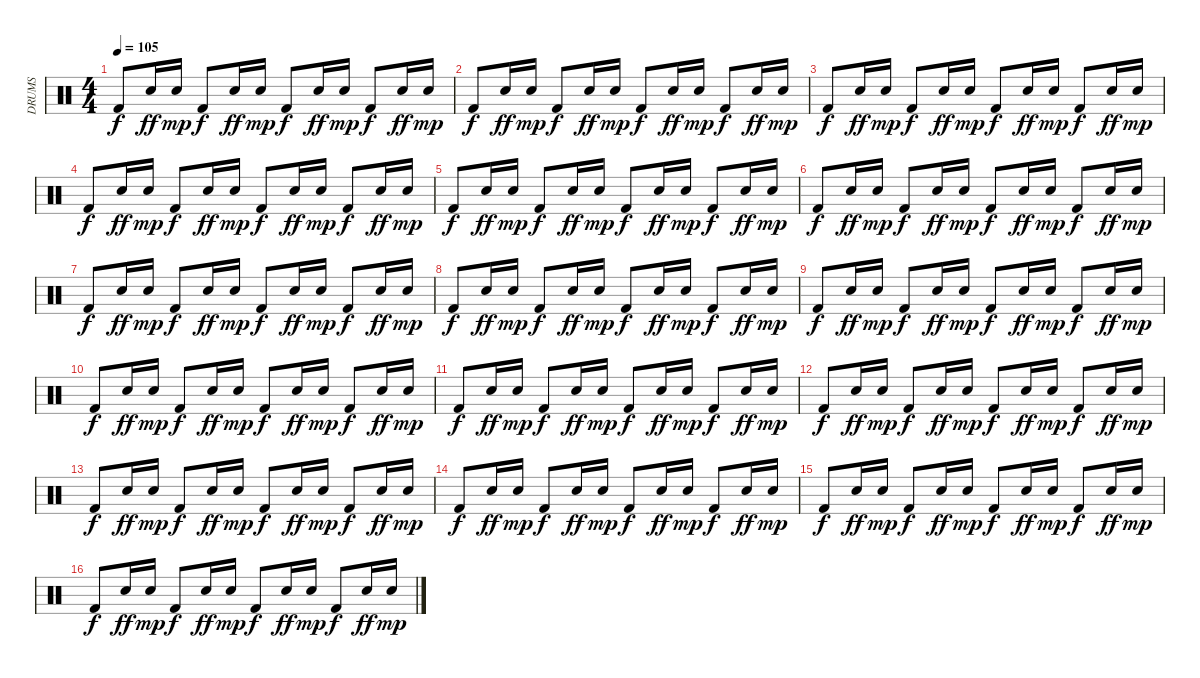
\track ("DRUMS" "DRUMS") {instrument percussion}
\staff {score}
\articulation defaults
\ts (4 4)
\tempo 105
\clef neutral
\ks c "Kick (hit) 2".8{dy f} "Snare (hit) 2".16{dy ff} "Snare (hit) 2".16{dy mp} "Kick (hit) 2".8{dy f} "Snare (hit) 2".16{dy ff} "Snare (hit) 2".16{dy mp} "Kick (hit) 2".8{dy f} "Snare (hit) 2".16{dy ff} "Snare (hit) 2".16{dy mp} "Kick (hit) 2".8{dy f} "Snare (hit) 2".16{dy ff} "Snare (hit) 2".16{dy mp}
|
"Kick (hit) 2".8{dy f} "Snare (hit) 2".16{dy ff} "Snare (hit) 2".16{dy mp} "Kick (hit) 2".8{dy f} "Snare (hit) 2".16{dy ff} "Snare (hit) 2".16{dy mp} "Kick (hit) 2".8{dy f} "Snare (hit) 2".16{dy ff} "Snare (hit) 2".16{dy mp} "Kick (hit) 2".8{dy f} "Snare (hit) 2".16{dy ff} "Snare (hit) 2".16{dy mp} |
"Kick (hit) 2".8{dy f} "Snare (hit) 2".16{dy ff} "Snare (hit) 2".16{dy mp} "Kick (hit) 2".8{dy f} "Snare (hit) 2".16{dy ff} "Snare (hit) 2".16{dy mp} "Kick (hit) 2".8{dy f} "Snare (hit) 2".16{dy ff} "Snare (hit) 2".16{dy mp} "Kick (hit) 2".8{dy f} "Snare (hit) 2".16{dy ff} "Snare (hit) 2".16{dy mp} |
"Kick (hit) 2".8{dy f} "Snare (hit) 2".16{dy ff} "Snare (hit) 2".16{dy mp} "Kick (hit) 2".8{dy f} "Snare (hit) 2".16{dy ff} "Snare (hit) 2".16{dy mp} "Kick (hit) 2".8{dy f} "Snare (hit) 2".16{dy ff} "Snare (hit) 2".16{dy mp} "Kick (hit) 2".8{dy f} "Snare (hit) 2".16{dy ff} "Snare (hit) 2".16{dy mp} |
"Kick (hit) 2".8{dy f} "Snare (hit) 2".16{dy ff} "Snare (hit) 2".16{dy mp} "Kick (hit) 2".8{dy f} "Snare (hit) 2".16{dy ff} "Snare (hit) 2".16{dy mp} "Kick (hit) 2".8{dy f} "Snare (hit) 2".16{dy ff} "Snare (hit) 2".16{dy mp} "Kick (hit) 2".8{dy f} "Snare (hit) 2".16{dy ff} "Snare (hit) 2".16{dy mp} |
"Kick (hit) 2".8{dy f} "Snare (hit) 2".16{dy ff} "Snare (hit) 2".16{dy mp} "Kick (hit) 2".8{dy f} "Snare (hit) 2".16{dy ff} "Snare (hit) 2".16{dy mp} "Kick (hit) 2".8{dy f} "Snare (hit) 2".16{dy ff} "Snare (hit) 2".16{dy mp} "Kick (hit) 2".8{dy f} "Snare (hit) 2".16{dy ff} "Snare (hit) 2".16{dy mp} |
"Kick (hit) 2".8{dy f} "Snare (hit) 2".16{dy ff} "Snare (hit) 2".16{dy mp} "Kick (hit) 2".8{dy f} "Snare (hit) 2".16{dy ff} "Snare (hit) 2".16{dy mp} "Kick (hit) 2".8{dy f} "Snare (hit) 2".16{dy ff} "Snare (hit) 2".16{dy mp} "Kick (hit) 2".8{dy f} "Snare (hit) 2".16{dy ff} "Snare (hit) 2".16{dy mp} |
"Kick (hit) 2".8{dy f} "Snare (hit) 2".16{dy ff} "Snare (hit) 2".16{dy mp} "Kick (hit) 2".8{dy f} "Snare (hit) 2".16{dy ff} "Snare (hit) 2".16{dy mp} "Kick (hit) 2".8{dy f} "Snare (hit) 2".16{dy ff} "Snare (hit) 2".16{dy mp} "Kick (hit) 2".8{dy f} "Snare (hit) 2".16{dy ff} "Snare (hit) 2".16{dy mp} |
"Kick (hit) 2".8{dy f} "Snare (hit) 2".16{dy ff} "Snare (hit) 2".16{dy mp} "Kick (hit) 2".8{dy f} "Snare (hit) 2".16{dy ff} "Snare (hit) 2".16{dy mp} "Kick (hit) 2".8{dy f} "Snare (hit) 2".16{dy ff} "Snare (hit) 2".16{dy mp} "Kick (hit) 2".8{dy f} "Snare (hit) 2".16{dy ff} "Snare (hit) 2".16{dy mp} |
"Kick (hit) 2".8{dy f} "Snare (hit) 2".16{dy ff} "Snare (hit) 2".16{dy mp} "Kick (hit) 2".8{dy f} "Snare (hit) 2".16{dy ff} "Snare (hit) 2".16{dy mp} "Kick (hit) 2".8{dy f} "Snare (hit) 2".16{dy ff} "Snare (hit) 2".16{dy mp} "Kick (hit) 2".8{dy f} "Snare (hit) 2".16{dy ff} "Snare (hit) 2".16{dy mp} |
"Kick (hit) 2".8{dy f} "Snare (hit) 2".16{dy ff} "Snare (hit) 2".16{dy mp} "Kick (hit) 2".8{dy f} "Snare (hit) 2".16{dy ff} "Snare (hit) 2".16{dy mp} "Kick (hit) 2".8{dy f} "Snare (hit) 2".16{dy ff} "Snare (hit) 2".16{dy mp} "Kick (hit) 2".8{dy f} "Snare (hit) 2".16{dy ff} "Snare (hit) 2".16{dy mp} |
"Kick (hit) 2".8{dy f} "Snare (hit) 2".16{dy ff} "Snare (hit) 2".16{dy mp} "Kick (hit) 2".8{dy f} "Snare (hit) 2".16{dy ff} "Snare (hit) 2".16{dy mp} "Kick (hit) 2".8{dy f} "Snare (hit) 2".16{dy ff} "Snare (hit) 2".16{dy mp} "Kick (hit) 2".8{dy f} "Snare (hit) 2".16{dy ff} "Snare (hit) 2".16{dy mp} |
"Kick (hit) 2".8{dy f} "Snare (hit) 2".16{dy ff} "Snare (hit) 2".16{dy mp} "Kick (hit) 2".8{dy f} "Snare (hit) 2".16{dy ff} "Snare (hit) 2".16{dy mp} "Kick (hit) 2".8{dy f} "Snare (hit) 2".16{dy ff} "Snare (hit) 2".16{dy mp} "Kick (hit) 2".8{dy f} "Snare (hit) 2".16{dy ff} "Snare (hit) 2".16{dy mp} |
"Kick (hit) 2".8{dy f} "Snare (hit) 2".16{dy ff} "Snare (hit) 2".16{dy mp} "Kick (hit) 2".8{dy f} "Snare (hit) 2".16{dy ff} "Snare (hit) 2".16{dy mp} "Kick (hit) 2".8{dy f} "Snare (hit) 2".16{dy ff} "Snare (hit) 2".16{dy mp} "Kick (hit) 2".8{dy f} "Snare (hit) 2".16{dy ff} "Snare (hit) 2".16{dy mp} |
"Kick (hit) 2".8{dy f} "Snare (hit) 2".16{dy ff} "Snare (hit) 2".16{dy mp} "Kick (hit) 2".8{dy f} "Snare (hit) 2".16{dy ff} "Snare (hit) 2".16{dy mp} "Kick (hit) 2".8{dy f} "Snare (hit) 2".16{dy ff} "Snare (hit) 2".16{dy mp} "Kick (hit) 2".8{dy f} "Snare (hit) 2".16{dy ff} "Snare (hit) 2".16{dy mp} |
"Kick (hit) 2".8{dy f} "Snare (hit) 2".16{dy ff} "Snare (hit) 2".16{dy mp} "Kick (hit) 2".8{dy f} "Snare (hit) 2".16{dy ff} "Snare (hit) 2".16{dy mp} "Kick (hit) 2".8{dy f} "Snare (hit) 2".16{dy ff} "Snare (hit) 2".16{dy mp} "Kick (hit) 2".8{dy f} "Snare (hit) 2".16{dy ff} "Snare (hit) 2".16{dy mp}
